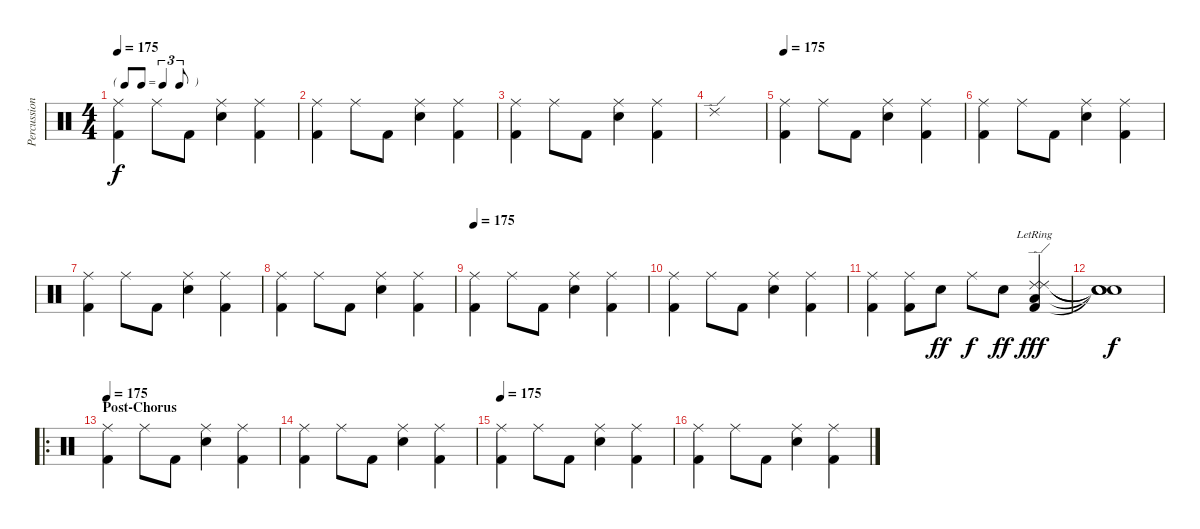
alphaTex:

\track ("Percussion" "Percussion") {instrument percussion}
\staff {score}
\articulation defaults
\ts (4 4)
\tf triplet8th
\tempo 175
\clef neutral
\ks c
("Ride (middle)" "Kick (hit) 2").4{dy f} "Ride (middle)".8 "Kick (hit) 2".8 ("Ride (middle)" "Electric Snare (hit)").4 ("Ride (middle)" "Kick (hit) 2").4 |
("Ride (middle)" "Kick (hit) 2").4 "Ride (middle)".8 "Kick (hit) 2".8 ("Ride (middle)" "Electric Snare (hit)").4 ("Ride (middle)" "Kick (hit) 2").4 |
("Ride (middle)" "Kick (hit) 2").4 "Ride (middle)".8 "Kick (hit) 2".8 ("Ride (middle)" "Electric Snare (hit)").4 ("Ride (middle)" "Kick (hit) 2").4 |
"Ride (edge) 2".1 |
\tempo 175
("Ride (middle)" "Kick (hit) 2").4 "Ride (middle)".8 "Kick (hit) 2".8 ("Ride (middle)" "Electric Snare (hit)").4 ("Ride (middle)" "Kick (hit) 2").4 |
("Ride (middle)" "Kick (hit) 2").4 "Ride (middle)".8 "Kick (hit) 2".8 ("Ride (middle)" "Electric Snare (hit)").4 ("Ride (middle)" "Kick (hit) 2").4 |
("Ride (middle)" "Kick (hit) 2").4 "Ride (middle)".8 "Kick (hit) 2".8 ("Ride (middle)" "Electric Snare (hit)").4 ("Ride (middle)" "Kick (hit) 2").4 |
("Ride (middle)" "Kick (hit) 2").4 "Ride (middle)".8 "Kick (hit) 2".8 ("Ride (middle)" "Electric Snare (hit)").4 ("Ride (middle)" "Kick (hit) 2").4 |
\tempo 175
("Ride (middle)" "Kick (hit) 2").4 "Ride (middle)".8 "Kick (hit) 2".8 ("Ride (middle)" "Electric Snare (hit)").4 ("Ride (middle)" "Kick (hit) 2").4 |
("Ride (middle)" "Kick (hit) 2").4 "Ride (middle)".8 "Kick (hit) 2".8 ("Ride (middle)" "Electric Snare (hit)").4 ("Ride (middle)" "Kick (hit) 2").4 |
("Ride (middle)" "Kick (hit) 2").4 ("Ride (middle)" "Kick (hit) 2").8 "Electric Snare (hit)".8{dy ff} "Ride (middle)".8{dy f} "Electric Snare (hit)".8{dy ff} ("Ride (edge) 2"{lr} "Ride (edge) 2"{lr} "Low Floor Tom (hit)" "Kick (hit) 2").4{dy fff} |
("Snare (hit)"{t} "Snare (hit)"{t} "Snare (hit)"{t} "Snare (hit)"{t}).1{dy f} |
\ro
\section ("" "Post-Chorus")
\tempo 175
("Ride (middle)" "Kick (hit) 2").4 "Ride (middle)".8 "Kick (hit) 2".8 ("Ride (middle)" "Electric Snare (hit)").4 ("Ride (middle)" "Kick (hit) 2").4 |
("Ride (middle)" "Kick (hit) 2").4 "Ride (middle)".8 "Kick (hit) 2".8 ("Ride (middle)" "Electric Snare (hit)").4 ("Ride (middle)" "Kick (hit) 2").4 |
\tempo 175
("Ride (middle)" "Kick (hit) 2").4 "Ride (middle)".8 "Kick (hit) 2".8 ("Ride (middle)" "Electric Snare (hit)").4 ("Ride (middle)" "Kick (hit) 2").4 |
("Ride (middle)" "Kick (hit) 2").4 "Ride (middle)".8 "Kick (hit) 2".8 ("Ride (middle)" "Electric Snare (hit)").4 ("Ride (middle)" "Kick (hit) 2").4
